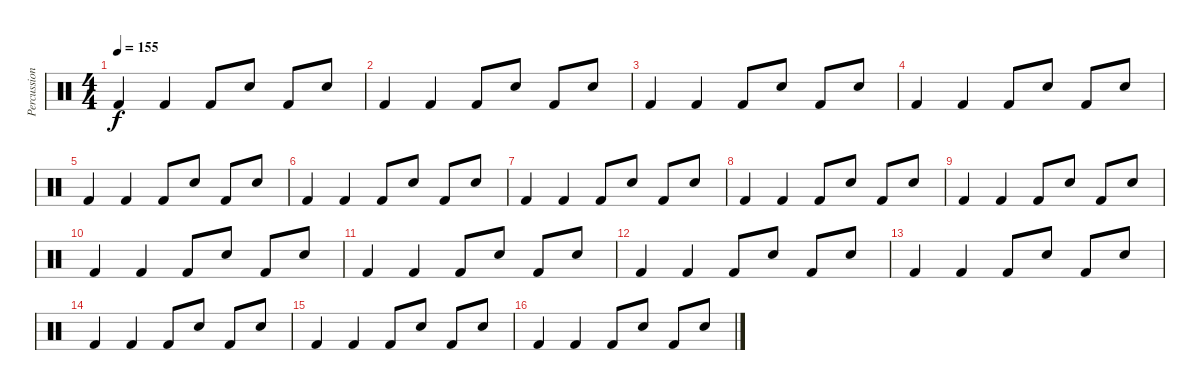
\track ("Percussion" "Percussion") {instrument percussion}
\staff {score}
\articulation defaults
\ts (4 4)
\tempo 155
\clef neutral
\ks c "Kick (hit) 2".4{dy f} "Kick (hit) 2".4 "Kick (hit) 2".8 "Snare (hit) 2".8 "Kick (hit) 2".8 "Snare (hit) 2".8
|
"Kick (hit) 2".4 "Kick (hit) 2".4 "Kick (hit) 2".8 "Snare (hit) 2".8 "Kick (hit) 2".8 "Snare (hit) 2".8 |
"Kick (hit) 2".4 "Kick (hit) 2".4 "Kick (hit) 2".8 "Snare (hit) 2".8 "Kick (hit) 2".8 "Snare (hit) 2".8 |
"Kick (hit) 2".4 "Kick (hit) 2".4 "Kick (hit) 2".8 "Snare (hit) 2".8 "Kick (hit) 2".8 "Snare (hit) 2".8 |
"Kick (hit) 2".4 "Kick (hit) 2".4 "Kick (hit) 2".8 "Snare (hit) 2".8 "Kick (hit) 2".8 "Snare (hit) 2".8 |
"Kick (hit) 2".4 "Kick (hit) 2".4 "Kick (hit) 2".8 "Snare (hit) 2".8 "Kick (hit) 2".8 "Snare (hit) 2".8 |
"Kick (hit) 2".4 "Kick (hit) 2".4 "Kick (hit) 2".8 "Snare (hit) 2".8 "Kick (hit) 2".8 "Snare (hit) 2".8 |
"Kick (hit) 2".4 "Kick (hit) 2".4 "Kick (hit) 2".8 "Snare (hit) 2".8 "Kick (hit) 2".8 "Snare (hit) 2".8 |
"Kick (hit) 2".4 "Kick (hit) 2".4 "Kick (hit) 2".8 "Snare (hit) 2".8 "Kick (hit) 2".8 "Snare (hit) 2".8 |
"Kick (hit) 2".4 "Kick (hit) 2".4 "Kick (hit) 2".8 "Snare (hit) 2".8 "Kick (hit) 2".8 "Snare (hit) 2".8 |
"Kick (hit) 2".4 "Kick (hit) 2".4 "Kick (hit) 2".8 "Snare (hit) 2".8 "Kick (hit) 2".8 "Snare (hit) 2".8 |
"Kick (hit) 2".4 "Kick (hit) 2".4 "Kick (hit) 2".8 "Snare (hit) 2".8 "Kick (hit) 2".8 "Snare (hit) 2".8 |
"Kick (hit) 2".4 "Kick (hit) 2".4 "Kick (hit) 2".8 "Snare (hit) 2".8 "Kick (hit) 2".8 "Snare (hit) 2".8 |
"Kick (hit) 2".4 "Kick (hit) 2".4 "Kick (hit) 2".8 "Snare (hit) 2".8 "Kick (hit) 2".8 "Snare (hit) 2".8 |
"Kick (hit) 2".4 "Kick (hit) 2".4 "Kick (hit) 2".8 "Snare (hit) 2".8 "Kick (hit) 2".8 "Snare (hit) 2".8 |
"Kick (hit) 2".4 "Kick (hit) 2".4 "Kick (hit) 2".8 "Snare (hit) 2".8 "Kick (hit) 2".8 "Snare (hit) 2".8
